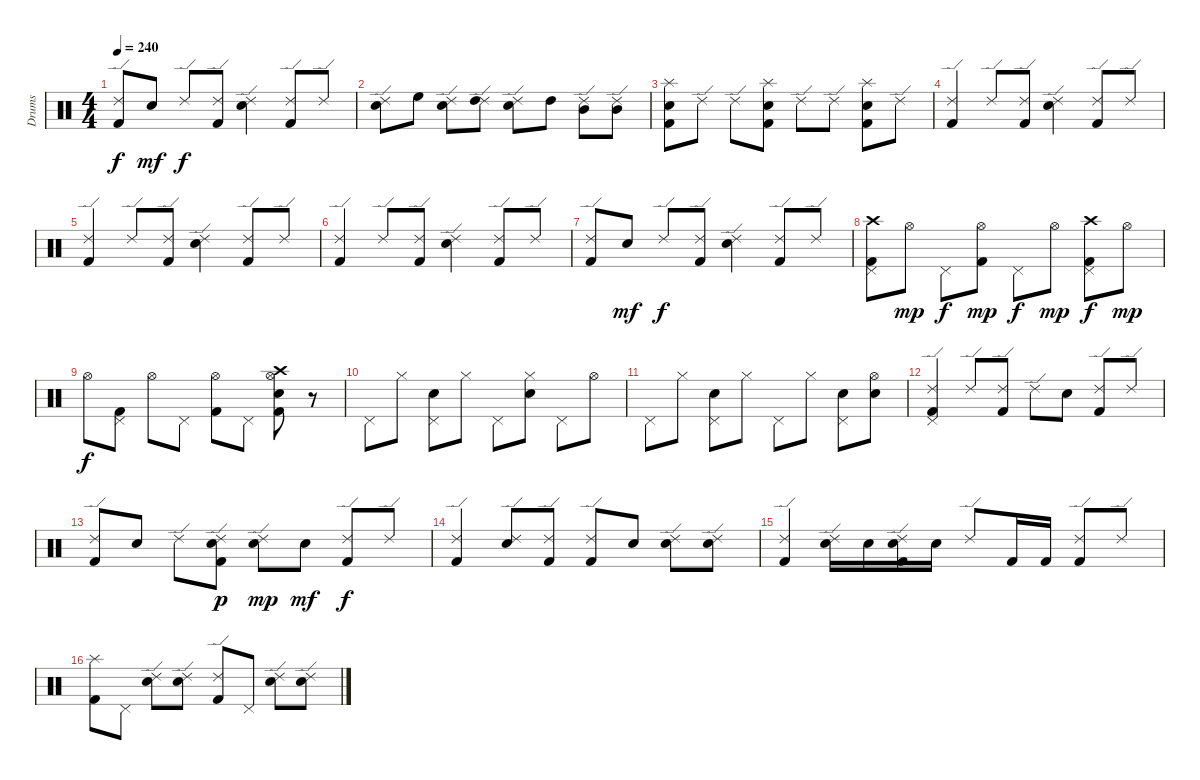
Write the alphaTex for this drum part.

\track ("Drums" "Drums") {instrument percussion}
\staff {score}
\articulation defaults
\ts (4 4)
\tempo 240
\clef neutral
\ks c
("Ride (edge) 2" "Kick (hit) 2").8{dy f} "Electric Snare (hit)".8{dy mf} "Ride (edge) 2".8{dy f} ("Ride (edge) 2" "Kick (hit) 2").8 ("Ride (edge) 2" "Electric Snare (hit)").4 ("Ride (edge) 2" "Kick (hit) 2").8 "Ride (edge) 2".8 |
("Ride (edge) 2" "Electric Snare (hit)").8 "High Floor Tom (hit)".8 ("Ride (edge) 2" "Electric Snare (hit)").8 ("Ride (edge) 2" "High Tom (hit)").8 ("Ride (edge) 2" "Electric Snare (hit)").8 "High Tom (hit)".8 ("Ride (edge) 2" "Mid Tom (hit)").8 ("Ride (edge) 2" "Mid Tom (hit)").8 |
("Splash (hit)" "Electric Snare (hit)" "Kick (hit) 2").8 "Ride (edge) 2".8 "Ride (edge) 2".8 ("Splash (hit)" "Electric Snare (hit)" "Kick (hit) 2").8 "Ride (edge) 2".8 "Ride (edge) 2".8 ("Splash (hit)" "Electric Snare (hit)" "Kick (hit) 2").8 "Ride (edge) 2".8 |
("Ride (edge) 2" "Kick (hit) 2").4 "Ride (edge) 2".8 ("Ride (edge) 2" "Kick (hit) 2").8 ("Ride (edge) 2" "Electric Snare (hit)").4 ("Ride (edge) 2" "Kick (hit) 2").8 "Ride (edge) 2".8 |
("Ride (edge) 2" "Kick (hit) 2").4 "Ride (edge) 2".8 ("Ride (edge) 2" "Kick (hit) 2").8 ("Ride (edge) 2" "Electric Snare (hit)").4 ("Ride (edge) 2" "Kick (hit) 2").8 "Ride (edge) 2".8 |
("Ride (edge) 2" "Kick (hit) 2").4 "Ride (edge) 2".8 ("Ride (edge) 2" "Kick (hit) 2").8 ("Ride (edge) 2" "Electric Snare (hit)").4 ("Ride (edge) 2" "Kick (hit) 2").8 "Ride (edge) 2".8 |
("Ride (edge) 2" "Kick (hit) 2").8 "Electric Snare (hit)".8{dy mf} "Ride (edge) 2".8{dy f} ("Ride (edge) 2" "Kick (hit) 2").8 ("Ride (edge) 2" "Electric Snare (hit)").4 ("Ride (edge) 2" "Kick (hit) 2").8 "Ride (edge) 2".8 |
("Crash high (hit)" "Pedal Hi-Hat (hit)" "Kick (hit) 2").8 "Hi-Hat (open)".8{dy mp} "Pedal Hi-Hat (hit)".8{dy f} ("Hi-Hat (open)" "Kick (hit) 2").8{dy mp} "Pedal Hi-Hat (hit)".8{dy f} "Hi-Hat (open)".8{dy mp} ("Crash high (hit)" "Pedal Hi-Hat (hit)" "Kick (hit) 2").8{dy f} "Hi-Hat (open)".8{dy mp} |
"Hi-Hat (open)".8{dy f} ("Pedal Hi-Hat (hit)" "Kick (hit) 2").8 "Hi-Hat (open)".8 "Pedal Hi-Hat (hit)".8 ("Hi-Hat (open)" "Kick (hit) 2").8 "Pedal Hi-Hat (hit)".8 ("Crash high (hit)" "Hi-Hat (open)" "Electric Snare (hit)" "Kick (hit) 2").8 r.8 |
"Pedal Hi-Hat (hit)".8 "Hi-Hat (closed)".8 ("Pedal Hi-Hat (hit)" "Electric Snare (hit)").8 "Hi-Hat (closed)".8 "Pedal Hi-Hat (hit)".8 ("Hi-Hat (closed)" "Electric Snare (hit)").8 "Pedal Hi-Hat (hit)".8 "Hi-Hat (open)".8 |
"Pedal Hi-Hat (hit)".8 "Hi-Hat (closed)".8 ("Pedal Hi-Hat (hit)" "Electric Snare (hit)").8 "Hi-Hat (closed)".8 "Pedal Hi-Hat (hit)".8 "Hi-Hat (closed)".8 ("Pedal Hi-Hat (hit)" "Electric Snare (hit)").8 ("Hi-Hat (open)" "Electric Snare (hit)").8 |
("Ride (edge) 2" "Pedal Hi-Hat (hit)" "Kick (hit) 2").4 "Ride (edge) 2".8 ("Ride (edge) 2" "Kick (hit) 2").8 "Ride (edge) 2".8 "Snare (hit) 2".8 ("Ride (edge) 2" "Kick (hit) 2").8 "Ride (edge) 2".8 |
("Ride (edge) 2" "Kick (hit) 2").8 "Snare (hit) 2".8 "Ride (edge) 2".8 ("Ride (edge) 2" "Snare (hit) 2" "Kick (hit) 2").8{dy p} ("Ride (edge) 2" "Snare (hit) 2").8{dy mp} "Snare (hit) 2".8{dy mf} ("Ride (edge) 2" "Kick (hit) 2").8{dy f} "Ride (edge) 2".8 |
("Ride (edge) 2" "Kick (hit) 2").4 ("Ride (edge) 2" "Snare (hit) 2").8 ("Ride (edge) 2" "Kick (hit) 2").8 ("Ride (edge) 2" "Kick (hit) 2").8 "Snare (hit) 2".8 ("Ride (edge) 2" "Snare (hit) 2").8 ("Ride (edge) 2" "Snare (hit) 2").8 |
("Ride (edge) 2" "Kick (hit) 2").4 ("Ride (edge) 2" "Snare (hit) 2").16 "Snare (hit) 2".16 ("Ride (edge) 2" "Snare (hit) 2" "Kick (hit) 2").16 "Snare (hit) 2".16 "Ride (edge) 2".8 "Kick (hit) 2".16 "Kick (hit) 2".16 ("Ride (edge) 2" "Kick (hit) 2").8 "Ride (edge) 2".8 |
("Splash (hit)" "Kick (hit) 2").8 "Pedal Hi-Hat (hit)".8 ("Ride (edge) 2" "Snare (hit) 2").8 ("Ride (edge) 2" "Snare (hit) 2").8 ("Ride (edge) 2" "Kick (hit) 2").8 "Pedal Hi-Hat (hit)".8 ("Ride (edge) 2" "Snare (hit) 2").8 ("Ride (edge) 2" "Snare (hit) 2").8
